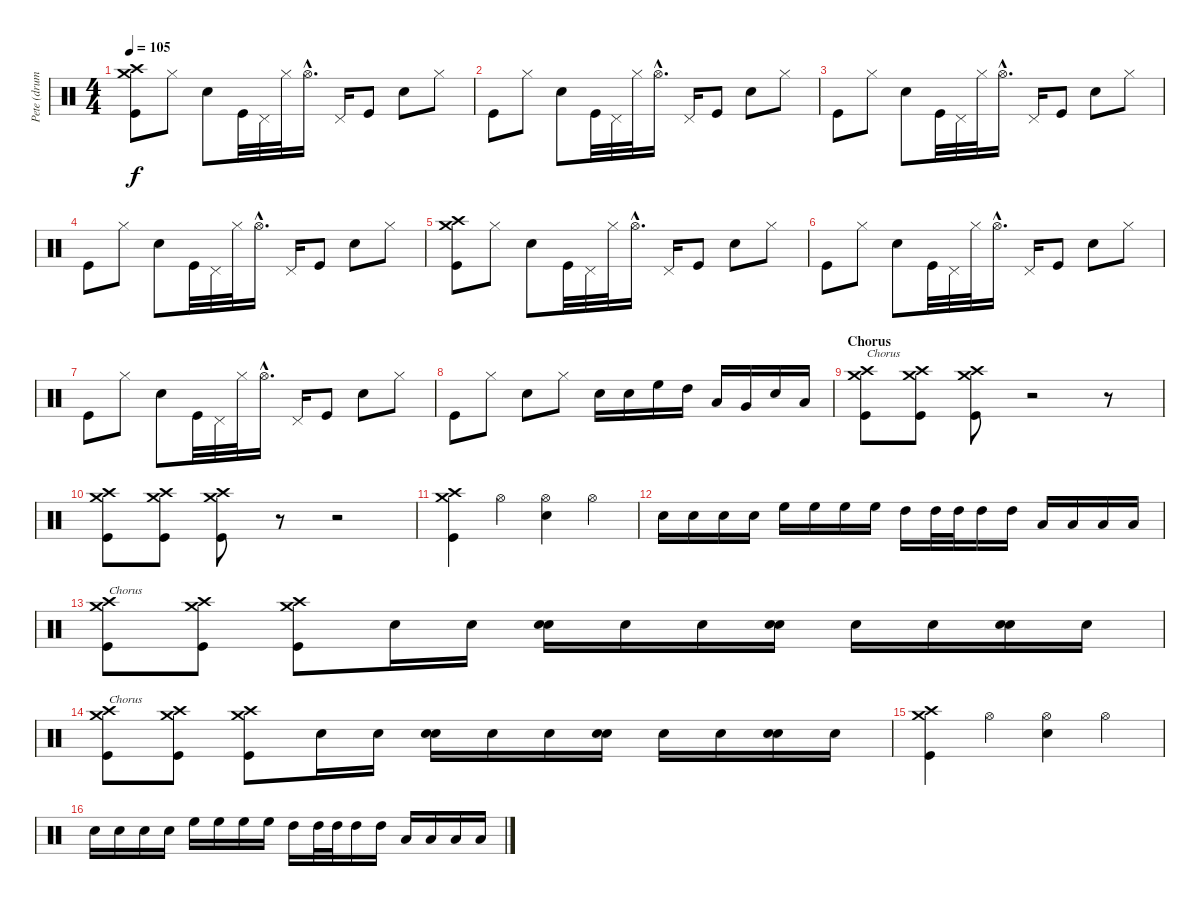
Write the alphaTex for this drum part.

\track ("Pete (drums)" "Pete (drum") {instrument percussion}
\staff {score}
\articulation defaults
\ts (4 4)
\tempo 105
\clef neutral
\ks c
("Crash high (hit)" "Crash medium (hit)" "Kick (hit)").8{dy f} "Hi-Hat (closed)".8 "Snare (hit) 2".8 "Kick (hit)".32 "Pedal Hi-Hat (hit)".32 "Hi-Hat (closed)".32 "Hi-Hat (open)"{hac}.16{d} "Pedal Hi-Hat (hit)".16 "Kick (hit)".8 "Snare (hit) 2".8 "Hi-Hat (closed)".8 |
"Kick (hit)".8 "Hi-Hat (closed)".8 "Snare (hit) 2".8 "Kick (hit)".32 "Pedal Hi-Hat (hit)".32 "Hi-Hat (closed)".32 "Hi-Hat (open)"{hac}.16{d} "Pedal Hi-Hat (hit)".16 "Kick (hit)".8 "Snare (hit) 2".8 "Hi-Hat (closed)".8 |
"Kick (hit)".8 "Hi-Hat (closed)".8 "Snare (hit) 2".8 "Kick (hit)".32 "Pedal Hi-Hat (hit)".32 "Hi-Hat (closed)".32 "Hi-Hat (open)"{hac}.16{d} "Pedal Hi-Hat (hit)".16 "Kick (hit)".8 "Snare (hit) 2".8 "Hi-Hat (closed)".8 |
"Kick (hit)".8 "Hi-Hat (closed)".8 "Snare (hit) 2".8 "Kick (hit)".32 "Pedal Hi-Hat (hit)".32 "Hi-Hat (closed)".32 "Hi-Hat (open)"{hac}.16{d} "Pedal Hi-Hat (hit)".16 "Kick (hit)".8 "Snare (hit) 2".8 "Hi-Hat (closed)".8 |
("Crash high (hit)" "Crash medium (hit)" "Kick (hit)").8 "Hi-Hat (closed)".8 "Snare (hit) 2".8 "Kick (hit)".32 "Pedal Hi-Hat (hit)".32 "Hi-Hat (closed)".32 "Hi-Hat (open)"{hac}.16{d} "Pedal Hi-Hat (hit)".16 "Kick (hit)".8 "Snare (hit) 2".8 "Hi-Hat (closed)".8 |
"Kick (hit)".8 "Hi-Hat (closed)".8 "Snare (hit) 2".8 "Kick (hit)".32 "Pedal Hi-Hat (hit)".32 "Hi-Hat (closed)".32 "Hi-Hat (open)"{hac}.16{d} "Pedal Hi-Hat (hit)".16 "Kick (hit)".8 "Snare (hit) 2".8 "Hi-Hat (closed)".8 |
"Kick (hit)".8 "Hi-Hat (closed)".8 "Snare (hit) 2".8 "Kick (hit)".32 "Pedal Hi-Hat (hit)".32 "Hi-Hat (closed)".32 "Hi-Hat (open)"{hac}.16{d} "Pedal Hi-Hat (hit)".16 "Kick (hit)".8 "Snare (hit) 2".8 "Hi-Hat (closed)".8 |
"Kick (hit)".8 "Hi-Hat (closed)".8 "Snare (hit) 2".8 "Hi-Hat (closed)".8 "Snare (hit) 2".16 "Snare (hit) 2".16 "High Floor Tom (hit)".16 "High Tom (hit)".16 "Low Tom (hit)".16 "Very Low Tom (hit)".16 "Snare (hit) 2".16 "Low Floor Tom (hit)".16 |
\section ("" "Chorus")
("Crash medium (hit)" "Crash high (hit)" "Kick (hit)").8{txt "Chorus"} ("Crash medium (hit)" "Crash high (hit)" "Kick (hit)").8 ("Crash medium (hit)" "Crash high (hit)" "Kick (hit)").8 r.2 r.8 |
("Crash medium (hit)" "Crash high (hit)" "Kick (hit)").8 ("Crash medium (hit)" "Crash high (hit)" "Kick (hit)").8 ("Crash medium (hit)" "Crash high (hit)" "Kick (hit)").8 r.8 r.2 |
("Crash medium (hit)" "Crash high (hit)" "Kick (hit)").4 "Hi-Hat (open)".4 ("Hi-Hat (open)" "Snare (hit) 2").4 "Hi-Hat (open)".4 |
"Snare (hit) 2".16 "Snare (hit) 2".16 "Snare (hit) 2".16 "Snare (hit) 2".16 "High Floor Tom (hit)".16 "High Floor Tom (hit)".16 "High Floor Tom (hit)".16 "High Floor Tom (hit)".16 "High Tom (hit)".16 "High Tom (hit)".32 "High Tom (hit)".32 "High Tom (hit)".16 "High Tom (hit)".16 "Low Tom (hit)".16 "Low Tom (hit)".16 "Low Tom (hit)".16 "Low Tom (hit)".16 |
("Crash medium (hit)" "Crash high (hit)" "Kick (hit)").8{txt "Chorus"} ("Crash medium (hit)" "Crash high (hit)" "Kick (hit)").8 ("Crash medium (hit)" "Crash high (hit)" "Kick (hit)").8 "Snare (hit) 2".16 "Snare (hit) 2".16 ("Snare (hit) 2" "Snare (hit) 2").16 "Snare (hit) 2".16 "Snare (hit) 2".16 ("Snare (hit) 2" "Snare (hit) 2").16 "Snare (hit) 2".16 "Snare (hit) 2".16 ("Snare (hit) 2" "Snare (hit) 2").16 "Snare (hit) 2".16 |
("Crash medium (hit)" "Crash high (hit)" "Kick (hit)").8{txt "Chorus"} ("Crash medium (hit)" "Crash high (hit)" "Kick (hit)").8 ("Crash medium (hit)" "Crash high (hit)" "Kick (hit)").8 "Snare (hit) 2".16 "Snare (hit) 2".16 ("Snare (hit) 2" "Snare (hit) 2").16 "Snare (hit) 2".16 "Snare (hit) 2".16 ("Snare (hit) 2" "Snare (hit) 2").16 "Snare (hit) 2".16 "Snare (hit) 2".16 ("Snare (hit) 2" "Snare (hit) 2").16 "Snare (hit) 2".16 |
("Crash medium (hit)" "Crash high (hit)" "Kick (hit)").4 "Hi-Hat (open)".4 ("Hi-Hat (open)" "Snare (hit) 2").4 "Hi-Hat (open)".4 |
"Snare (hit) 2".16 "Snare (hit) 2".16 "Snare (hit) 2".16 "Snare (hit) 2".16 "High Floor Tom (hit)".16 "High Floor Tom (hit)".16 "High Floor Tom (hit)".16 "High Floor Tom (hit)".16 "High Tom (hit)".16 "High Tom (hit)".32 "High Tom (hit)".32 "High Tom (hit)".16 "High Tom (hit)".16 "Low Tom (hit)".16 "Low Tom (hit)".16 "Low Tom (hit)".16 "Low Tom (hit)".16
